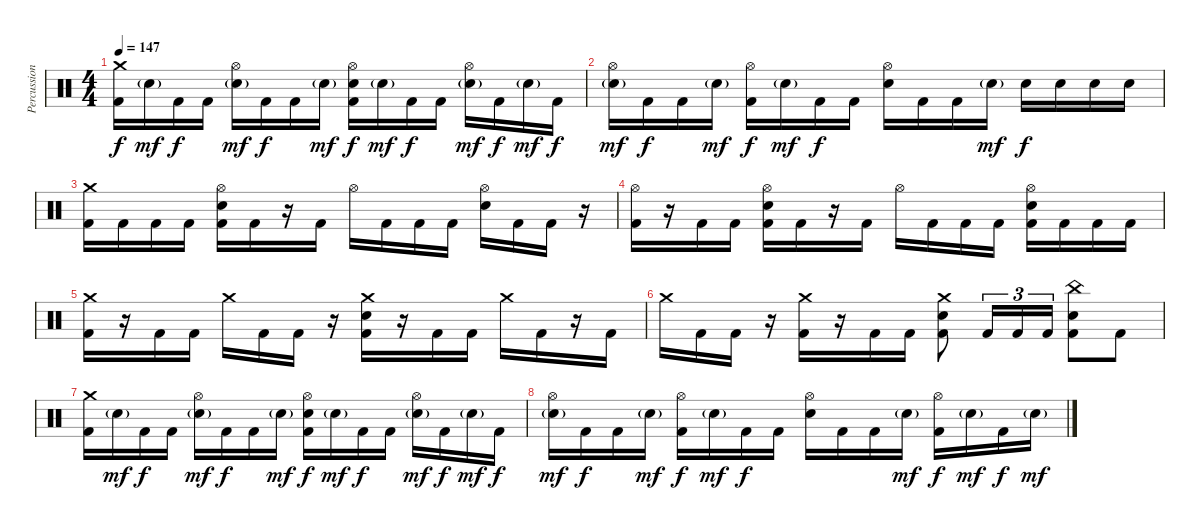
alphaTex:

\track ("Percussion" "Percussion") {instrument percussion}
\staff {score}
\articulation defaults
\ts (4 4)
\tempo 147
\clef neutral
\ks c
("Crash medium (hit)" "Kick (hit) 2").16{dy f} "Electric Snare (hit)"{g}.16{dy mf} "Kick (hit) 2".16{dy f} "Kick (hit) 2".16 ("Hi-Hat (open)" "Electric Snare (hit)"{g}).16{dy mf} "Kick (hit) 2".16{dy f} "Kick (hit) 2".16 "Electric Snare (hit)"{g}.16{dy mf} ("Hi-Hat (open)" "Electric Snare (hit)" "Kick (hit) 2").16{dy f} "Electric Snare (hit)"{g}.16{dy mf} "Kick (hit) 2".16{dy f} "Kick (hit) 2".16 ("Hi-Hat (open)" "Electric Snare (hit)"{g}).16{dy mf} "Kick (hit) 2".16{dy f} "Electric Snare (hit)"{g}.16{dy mf} "Kick (hit) 2".16{dy f} |
("Hi-Hat (open)" "Electric Snare (hit)"{g}).16{dy mf} "Kick (hit) 2".16{dy f} "Kick (hit) 2".16 "Electric Snare (hit)"{g}.16{dy mf} ("Hi-Hat (open)" "Kick (hit) 2").16{dy f} "Electric Snare (hit)"{g}.16{dy mf} "Kick (hit) 2".16{dy f} "Kick (hit) 2".16 ("Hi-Hat (open)" "Electric Snare (hit)").16 "Kick (hit) 2".16 "Kick (hit) 2".16 "Electric Snare (hit)"{g}.16{dy mf} "Electric Snare (hit)".16{dy f} "Electric Snare (hit)".16 "Electric Snare (hit)".16 "Electric Snare (hit)".16 |
("Crash medium (hit)" "Kick (hit) 2").16 "Kick (hit) 2".16 "Kick (hit) 2".16 "Kick (hit) 2".16 ("Hi-Hat (open)" "Electric Snare (hit)" "Kick (hit) 2").16 "Kick (hit) 2".16 r.16 "Kick (hit) 2".16 "Hi-Hat (open)".16 "Kick (hit) 2".16 "Kick (hit) 2".16 "Kick (hit) 2".16 ("Hi-Hat (open)" "Electric Snare (hit)").16 "Kick (hit) 2".16 "Kick (hit) 2".16 r.16 |
("Hi-Hat (open)" "Kick (hit) 2").16 r.16 "Kick (hit) 2".16 "Kick (hit) 2".16 ("Hi-Hat (open)" "Electric Snare (hit)" "Kick (hit) 2").16 "Kick (hit) 2".16 r.16 "Kick (hit) 2".16 "Hi-Hat (open)".16 "Kick (hit) 2".16 "Kick (hit) 2".16 "Kick (hit) 2".16 ("Hi-Hat (open)" "Electric Snare (hit)" "Kick (hit) 2").16 "Kick (hit) 2".16 "Kick (hit) 2".16 "Kick (hit) 2".16 |
("Crash medium (hit)" "Kick (hit) 2").16 r.16 "Kick (hit) 2".16 "Kick (hit) 2".16 "Crash medium (hit)".16 "Kick (hit) 2".16 "Kick (hit) 2".16 r.16 ("Crash medium (hit)" "Electric Snare (hit)" "Kick (hit) 2").16 r.16 "Kick (hit) 2".16 "Kick (hit) 2".16 "Crash medium (hit)".16 "Kick (hit) 2".16 r.16 "Kick (hit) 2".16 |
"Crash medium (hit)".16 "Kick (hit) 2".16 "Kick (hit) 2".16 r.16 ("Crash medium (hit)" "Kick (hit) 2").16 r.16 "Kick (hit) 2".16 "Kick (hit) 2".16 ("Crash medium (hit)" "Electric Snare (hit)" "Kick (hit) 2").8 "Kick (hit) 2".16{tu (3 2)} "Kick (hit) 2".16{tu (3 2)} "Kick (hit) 2".16{tu (3 2)} ("China (hit)" "Electric Snare (hit)" "Kick (hit) 2").8 "Kick (hit) 2".8 |
("Crash medium (hit)" "Kick (hit) 2").16 "Electric Snare (hit)"{g}.16{dy mf} "Kick (hit) 2".16{dy f} "Kick (hit) 2".16 ("Hi-Hat (open)" "Electric Snare (hit)"{g}).16{dy mf} "Kick (hit) 2".16{dy f} "Kick (hit) 2".16 "Electric Snare (hit)"{g}.16{dy mf} ("Hi-Hat (open)" "Electric Snare (hit)" "Kick (hit) 2").16{dy f} "Electric Snare (hit)"{g}.16{dy mf} "Kick (hit) 2".16{dy f} "Kick (hit) 2".16 ("Hi-Hat (open)" "Electric Snare (hit)"{g}).16{dy mf} "Kick (hit) 2".16{dy f} "Electric Snare (hit)"{g}.16{dy mf} "Kick (hit) 2".16{dy f} |
("Hi-Hat (open)" "Electric Snare (hit)"{g}).16{dy mf} "Kick (hit) 2".16{dy f} "Kick (hit) 2".16 "Electric Snare (hit)"{g}.16{dy mf} ("Hi-Hat (open)" "Kick (hit) 2").16{dy f} "Electric Snare (hit)"{g}.16{dy mf} "Kick (hit) 2".16{dy f} "Kick (hit) 2".16 ("Hi-Hat (open)" "Electric Snare (hit)").16 "Kick (hit) 2".16 "Kick (hit) 2".16 "Electric Snare (hit)"{g}.16{dy mf} ("Hi-Hat (open)" "Kick (hit) 2").16{dy f} "Electric Snare (hit)"{g}.16{dy mf} "Kick (hit) 2".16{dy f} "Electric Snare (hit)"{g}.16{dy mf}
